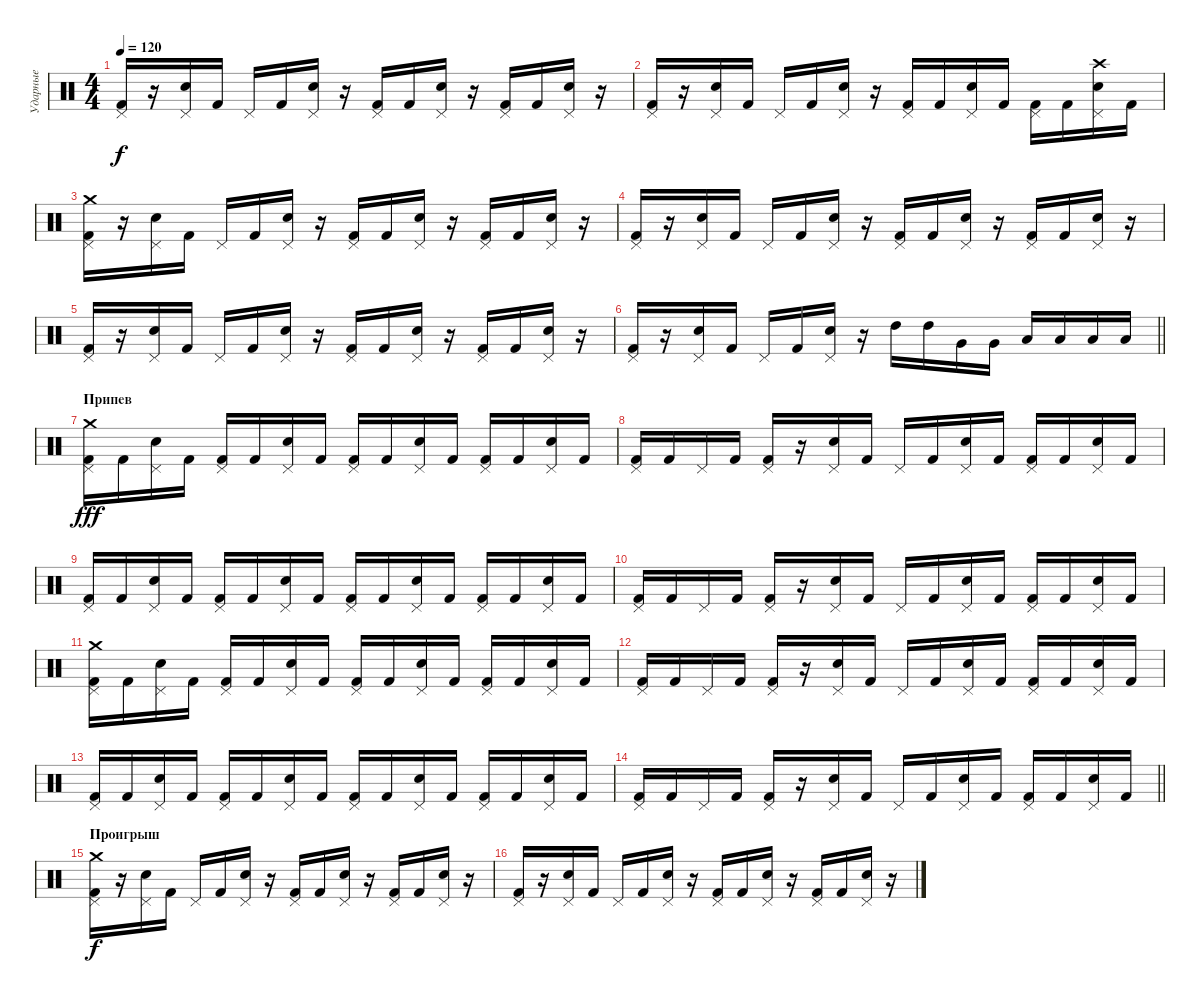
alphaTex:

\track ("Ударные" "Ударные") {instrument percussion}
\staff {score}
\articulation defaults
\ts (4 4)
\tempo 120
\clef neutral
\ks c
("Kick (hit) 2" "Pedal Hi-Hat (hit)").16{dy f} r.16 ("Snare (hit) 2" "Pedal Hi-Hat (hit)").16 "Kick (hit) 2".16 "Pedal Hi-Hat (hit)".16 "Kick (hit) 2".16 ("Snare (hit) 2" "Pedal Hi-Hat (hit)").16 r.16 ("Kick (hit) 2" "Pedal Hi-Hat (hit)").16 "Kick (hit) 2".16 ("Snare (hit) 2" "Pedal Hi-Hat (hit)").16 r.16 ("Kick (hit) 2" "Pedal Hi-Hat (hit)").16 "Kick (hit) 2".16 ("Snare (hit) 2" "Pedal Hi-Hat (hit)").16 r.16 |
("Kick (hit) 2" "Pedal Hi-Hat (hit)").16 r.16 ("Snare (hit) 2" "Pedal Hi-Hat (hit)").16 "Kick (hit) 2".16 "Pedal Hi-Hat (hit)".16 "Kick (hit) 2".16 ("Snare (hit) 2" "Pedal Hi-Hat (hit)").16 r.16 ("Kick (hit) 2" "Pedal Hi-Hat (hit)").16 "Kick (hit) 2".16 ("Snare (hit) 2" "Pedal Hi-Hat (hit)").16 "Kick (hit) 2".16 ("Kick (hit) 2" "Pedal Hi-Hat (hit)").16 "Kick (hit) 2".16 ("Snare (hit) 2" "Pedal Hi-Hat (hit)" "Crash high (hit)").16 "Kick (hit) 2".16 |
("Kick (hit) 2" "Pedal Hi-Hat (hit)" "Crash medium (hit)").16 r.16 ("Snare (hit) 2" "Pedal Hi-Hat (hit)").16 "Kick (hit) 2".16 "Pedal Hi-Hat (hit)".16 "Kick (hit) 2".16 ("Snare (hit) 2" "Pedal Hi-Hat (hit)").16 r.16 ("Kick (hit) 2" "Pedal Hi-Hat (hit)").16 "Kick (hit) 2".16 ("Snare (hit) 2" "Pedal Hi-Hat (hit)").16 r.16 ("Kick (hit) 2" "Pedal Hi-Hat (hit)").16 "Kick (hit) 2".16 ("Snare (hit) 2" "Pedal Hi-Hat (hit)").16 r.16 |
("Kick (hit) 2" "Pedal Hi-Hat (hit)").16 r.16 ("Snare (hit) 2" "Pedal Hi-Hat (hit)").16 "Kick (hit) 2".16 "Pedal Hi-Hat (hit)".16 "Kick (hit) 2".16 ("Snare (hit) 2" "Pedal Hi-Hat (hit)").16 r.16 ("Kick (hit) 2" "Pedal Hi-Hat (hit)").16 "Kick (hit) 2".16 ("Snare (hit) 2" "Pedal Hi-Hat (hit)").16 r.16 ("Kick (hit) 2" "Pedal Hi-Hat (hit)").16 "Kick (hit) 2".16 ("Snare (hit) 2" "Pedal Hi-Hat (hit)").16 r.16 |
("Kick (hit) 2" "Pedal Hi-Hat (hit)").16 r.16 ("Snare (hit) 2" "Pedal Hi-Hat (hit)").16 "Kick (hit) 2".16 "Pedal Hi-Hat (hit)".16 "Kick (hit) 2".16 ("Snare (hit) 2" "Pedal Hi-Hat (hit)").16 r.16 ("Kick (hit) 2" "Pedal Hi-Hat (hit)").16 "Kick (hit) 2".16 ("Snare (hit) 2" "Pedal Hi-Hat (hit)").16 r.16 ("Kick (hit) 2" "Pedal Hi-Hat (hit)").16 "Kick (hit) 2".16 ("Snare (hit) 2" "Pedal Hi-Hat (hit)").16 r.16 |
\barLineRight lightlight
("Kick (hit) 2" "Pedal Hi-Hat (hit)").16 r.16 ("Snare (hit) 2" "Pedal Hi-Hat (hit)").16 "Kick (hit) 2".16 "Pedal Hi-Hat (hit)".16 "Kick (hit) 2".16 ("Snare (hit) 2" "Pedal Hi-Hat (hit)").16 r.16 "High Tom (hit)".16 "High Tom (hit)".16 "Very Low Tom (hit)".16 "Very Low Tom (hit)".16 "Low Tom (hit)".16 "Low Tom (hit)".16 "Low Floor Tom (hit)".16 "Low Floor Tom (hit)".16 |
\section ("" "Припев")
("Kick (hit) 2" "Pedal Hi-Hat (hit)" "Crash medium (hit)").16{dy fff} "Kick (hit) 2".16 ("Snare (hit) 2" "Pedal Hi-Hat (hit)").16 "Kick (hit) 2".16 ("Kick (hit) 2" "Pedal Hi-Hat (hit)").16 "Kick (hit) 2".16 ("Snare (hit) 2" "Pedal Hi-Hat (hit)").16 "Kick (hit) 2".16 ("Kick (hit) 2" "Pedal Hi-Hat (hit)").16 "Kick (hit) 2".16 ("Snare (hit) 2" "Pedal Hi-Hat (hit)").16 "Kick (hit) 2".16 ("Kick (hit) 2" "Pedal Hi-Hat (hit)").16 "Kick (hit) 2".16 ("Snare (hit) 2" "Pedal Hi-Hat (hit)").16 "Kick (hit) 2".16 |
("Kick (hit) 2" "Pedal Hi-Hat (hit)").16 "Kick (hit) 2".16 "Pedal Hi-Hat (hit)".16 "Kick (hit) 2".16 ("Kick (hit) 2" "Pedal Hi-Hat (hit)").16 r.16 ("Snare (hit) 2" "Pedal Hi-Hat (hit)").16 "Kick (hit) 2".16 "Pedal Hi-Hat (hit)".16 "Kick (hit) 2".16 ("Snare (hit) 2" "Pedal Hi-Hat (hit)").16 "Kick (hit) 2".16 ("Kick (hit) 2" "Pedal Hi-Hat (hit)").16 "Kick (hit) 2".16 ("Snare (hit) 2" "Pedal Hi-Hat (hit)").16 "Kick (hit) 2".16 |
("Kick (hit) 2" "Pedal Hi-Hat (hit)").16 "Kick (hit) 2".16 ("Snare (hit) 2" "Pedal Hi-Hat (hit)").16 "Kick (hit) 2".16 ("Kick (hit) 2" "Pedal Hi-Hat (hit)").16 "Kick (hit) 2".16 ("Snare (hit) 2" "Pedal Hi-Hat (hit)").16 "Kick (hit) 2".16 ("Kick (hit) 2" "Pedal Hi-Hat (hit)").16 "Kick (hit) 2".16 ("Snare (hit) 2" "Pedal Hi-Hat (hit)").16 "Kick (hit) 2".16 ("Kick (hit) 2" "Pedal Hi-Hat (hit)").16 "Kick (hit) 2".16 ("Snare (hit) 2" "Pedal Hi-Hat (hit)").16 "Kick (hit) 2".16 |
("Kick (hit) 2" "Pedal Hi-Hat (hit)").16 "Kick (hit) 2".16 "Pedal Hi-Hat (hit)".16 "Kick (hit) 2".16 ("Kick (hit) 2" "Pedal Hi-Hat (hit)").16 r.16 ("Snare (hit) 2" "Pedal Hi-Hat (hit)").16 "Kick (hit) 2".16 "Pedal Hi-Hat (hit)".16 "Kick (hit) 2".16 ("Snare (hit) 2" "Pedal Hi-Hat (hit)").16 "Kick (hit) 2".16 ("Kick (hit) 2" "Pedal Hi-Hat (hit)").16 "Kick (hit) 2".16 ("Snare (hit) 2" "Pedal Hi-Hat (hit)").16 "Kick (hit) 2".16 |
("Kick (hit) 2" "Pedal Hi-Hat (hit)" "Crash medium (hit)").16 "Kick (hit) 2".16 ("Snare (hit) 2" "Pedal Hi-Hat (hit)").16 "Kick (hit) 2".16 ("Kick (hit) 2" "Pedal Hi-Hat (hit)").16 "Kick (hit) 2".16 ("Snare (hit) 2" "Pedal Hi-Hat (hit)").16 "Kick (hit) 2".16 ("Kick (hit) 2" "Pedal Hi-Hat (hit)").16 "Kick (hit) 2".16 ("Snare (hit) 2" "Pedal Hi-Hat (hit)").16 "Kick (hit) 2".16 ("Kick (hit) 2" "Pedal Hi-Hat (hit)").16 "Kick (hit) 2".16 ("Snare (hit) 2" "Pedal Hi-Hat (hit)").16 "Kick (hit) 2".16 |
("Kick (hit) 2" "Pedal Hi-Hat (hit)").16 "Kick (hit) 2".16 "Pedal Hi-Hat (hit)".16 "Kick (hit) 2".16 ("Kick (hit) 2" "Pedal Hi-Hat (hit)").16 r.16 ("Snare (hit) 2" "Pedal Hi-Hat (hit)").16 "Kick (hit) 2".16 "Pedal Hi-Hat (hit)".16 "Kick (hit) 2".16 ("Snare (hit) 2" "Pedal Hi-Hat (hit)").16 "Kick (hit) 2".16 ("Kick (hit) 2" "Pedal Hi-Hat (hit)").16 "Kick (hit) 2".16 ("Snare (hit) 2" "Pedal Hi-Hat (hit)").16 "Kick (hit) 2".16 |
("Kick (hit) 2" "Pedal Hi-Hat (hit)").16 "Kick (hit) 2".16 ("Snare (hit) 2" "Pedal Hi-Hat (hit)").16 "Kick (hit) 2".16 ("Kick (hit) 2" "Pedal Hi-Hat (hit)").16 "Kick (hit) 2".16 ("Snare (hit) 2" "Pedal Hi-Hat (hit)").16 "Kick (hit) 2".16 ("Kick (hit) 2" "Pedal Hi-Hat (hit)").16 "Kick (hit) 2".16 ("Snare (hit) 2" "Pedal Hi-Hat (hit)").16 "Kick (hit) 2".16 ("Kick (hit) 2" "Pedal Hi-Hat (hit)").16 "Kick (hit) 2".16 ("Snare (hit) 2" "Pedal Hi-Hat (hit)").16 "Kick (hit) 2".16 |
\barLineRight lightlight
("Kick (hit) 2" "Pedal Hi-Hat (hit)").16 "Kick (hit) 2".16 "Pedal Hi-Hat (hit)".16 "Kick (hit) 2".16 ("Kick (hit) 2" "Pedal Hi-Hat (hit)").16 r.16 ("Snare (hit) 2" "Pedal Hi-Hat (hit)").16 "Kick (hit) 2".16 "Pedal Hi-Hat (hit)".16 "Kick (hit) 2".16 ("Snare (hit) 2" "Pedal Hi-Hat (hit)").16 "Kick (hit) 2".16 ("Kick (hit) 2" "Pedal Hi-Hat (hit)").16 "Kick (hit) 2".16 ("Snare (hit) 2" "Pedal Hi-Hat (hit)").16 "Kick (hit) 2".16 |
\section ("" "Проигрыш")
("Kick (hit) 2" "Pedal Hi-Hat (hit)" "Crash medium (hit)").16{dy f} r.16 ("Snare (hit) 2" "Pedal Hi-Hat (hit)").16 "Kick (hit) 2".16 "Pedal Hi-Hat (hit)".16 "Kick (hit) 2".16 ("Snare (hit) 2" "Pedal Hi-Hat (hit)").16 r.16 ("Kick (hit) 2" "Pedal Hi-Hat (hit)").16 "Kick (hit) 2".16 ("Snare (hit) 2" "Pedal Hi-Hat (hit)").16 r.16 ("Kick (hit) 2" "Pedal Hi-Hat (hit)").16 "Kick (hit) 2".16 ("Snare (hit) 2" "Pedal Hi-Hat (hit)").16 r.16 |
("Kick (hit) 2" "Pedal Hi-Hat (hit)").16 r.16 ("Snare (hit) 2" "Pedal Hi-Hat (hit)").16 "Kick (hit) 2".16 "Pedal Hi-Hat (hit)".16 "Kick (hit) 2".16 ("Snare (hit) 2" "Pedal Hi-Hat (hit)").16 r.16 ("Kick (hit) 2" "Pedal Hi-Hat (hit)").16 "Kick (hit) 2".16 ("Snare (hit) 2" "Pedal Hi-Hat (hit)").16 r.16 ("Kick (hit) 2" "Pedal Hi-Hat (hit)").16 "Kick (hit) 2".16 ("Snare (hit) 2" "Pedal Hi-Hat (hit)").16 r.16
